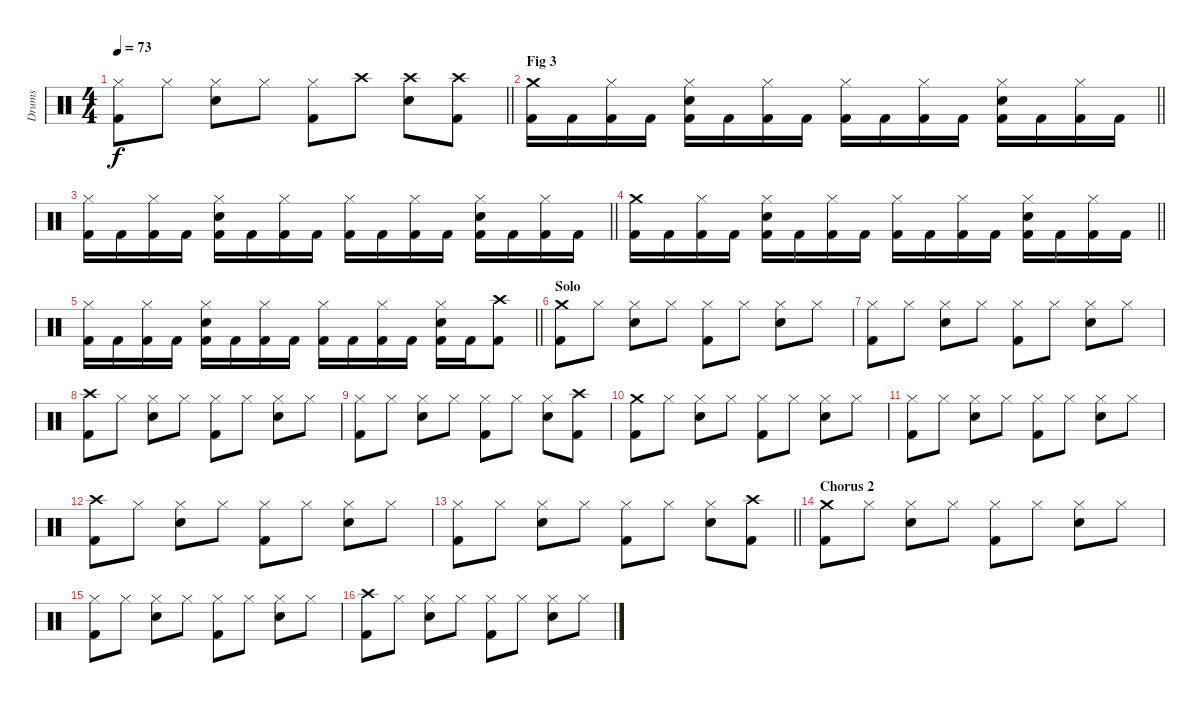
\track ("Drums" "Drums") {instrument percussion}
\staff {score}
\articulation defaults
\ts (4 4)
\tempo 73
\clef neutral
\barLineRight lightlight
\ks c
("Hi-Hat (closed)" "Kick (hit) 2").8{dy f} "Hi-Hat (closed)".8 ("Hi-Hat (closed)" "Electric Snare (hit)").8 "Hi-Hat (closed)".8 ("Hi-Hat (closed)" "Kick (hit) 2").8 "Crash high (hit)".8 ("Crash high (hit)" "Electric Snare (hit)").8 ("Crash high (hit)" "Kick (hit) 2").8 |
\section ("" "Fig 3")
\barLineRight lightlight
("Crash medium (hit)" "Kick (hit) 2").16 "Kick (hit) 2".16 ("Hi-Hat (closed)" "Kick (hit) 2").16 "Kick (hit) 2".16 ("Hi-Hat (closed)" "Electric Snare (hit)" "Kick (hit) 2").16 "Kick (hit) 2".16 ("Hi-Hat (closed)" "Kick (hit) 2").16 "Kick (hit) 2".16 ("Hi-Hat (closed)" "Kick (hit) 2").16 "Kick (hit) 2".16 ("Hi-Hat (closed)" "Kick (hit) 2").16 "Kick (hit) 2".16 ("Hi-Hat (closed)" "Electric Snare (hit)" "Kick (hit) 2").16 "Kick (hit) 2".16 ("Hi-Hat (closed)" "Kick (hit) 2").16 "Kick (hit) 2".16 |
\barLineRight lightlight
("Hi-Hat (closed)" "Kick (hit) 2").16 "Kick (hit) 2".16 ("Hi-Hat (closed)" "Kick (hit) 2").16 "Kick (hit) 2".16 ("Hi-Hat (closed)" "Electric Snare (hit)" "Kick (hit) 2").16 "Kick (hit) 2".16 ("Hi-Hat (closed)" "Kick (hit) 2").16 "Kick (hit) 2".16 ("Hi-Hat (closed)" "Kick (hit) 2").16 "Kick (hit) 2".16 ("Hi-Hat (closed)" "Kick (hit) 2").16 "Kick (hit) 2".16 ("Hi-Hat (closed)" "Electric Snare (hit)" "Kick (hit) 2").16 "Kick (hit) 2".16 ("Hi-Hat (closed)" "Kick (hit) 2").16 "Kick (hit) 2".16 |
\barLineRight lightlight
("Crash medium (hit)" "Kick (hit) 2").16 "Kick (hit) 2".16 ("Hi-Hat (closed)" "Kick (hit) 2").16 "Kick (hit) 2".16 ("Hi-Hat (closed)" "Electric Snare (hit)" "Kick (hit) 2").16 "Kick (hit) 2".16 ("Hi-Hat (closed)" "Kick (hit) 2").16 "Kick (hit) 2".16 ("Hi-Hat (closed)" "Kick (hit) 2").16 "Kick (hit) 2".16 ("Hi-Hat (closed)" "Kick (hit) 2").16 "Kick (hit) 2".16 ("Hi-Hat (closed)" "Electric Snare (hit)" "Kick (hit) 2").16 "Kick (hit) 2".16 ("Hi-Hat (closed)" "Kick (hit) 2").16 "Kick (hit) 2".16 |
\barLineRight lightlight
("Hi-Hat (closed)" "Kick (hit) 2").16 "Kick (hit) 2".16 ("Hi-Hat (closed)" "Kick (hit) 2").16 "Kick (hit) 2".16 ("Hi-Hat (closed)" "Electric Snare (hit)" "Kick (hit) 2").16 "Kick (hit) 2".16 ("Hi-Hat (closed)" "Kick (hit) 2").16 "Kick (hit) 2".16 ("Hi-Hat (closed)" "Kick (hit) 2").16 "Kick (hit) 2".16 ("Hi-Hat (closed)" "Kick (hit) 2").16 "Kick (hit) 2".16 ("Hi-Hat (closed)" "Electric Snare (hit)" "Kick (hit) 2").16 "Kick (hit) 2".16 ("Crash high (hit)" "Kick (hit) 2").8 |
\section ("" "Solo")
("Crash medium (hit)" "Kick (hit) 2").8 "Hi-Hat (closed)".8 ("Hi-Hat (closed)" "Electric Snare (hit)").8 "Hi-Hat (closed)".8 ("Hi-Hat (closed)" "Kick (hit) 2").8 "Hi-Hat (closed)".8 ("Hi-Hat (closed)" "Electric Snare (hit)").8 "Hi-Hat (closed)".8 |
("Hi-Hat (closed)" "Kick (hit) 2").8 "Hi-Hat (closed)".8 ("Hi-Hat (closed)" "Electric Snare (hit)").8 "Hi-Hat (closed)".8 ("Hi-Hat (closed)" "Kick (hit) 2").8 "Hi-Hat (closed)".8 ("Hi-Hat (closed)" "Electric Snare (hit)").8 "Hi-Hat (closed)".8 |
("Crash high (hit)" "Kick (hit) 2").8 "Hi-Hat (closed)".8 ("Hi-Hat (closed)" "Electric Snare (hit)").8 "Hi-Hat (closed)".8 ("Hi-Hat (closed)" "Kick (hit) 2").8 "Hi-Hat (closed)".8 ("Hi-Hat (closed)" "Electric Snare (hit)").8 "Hi-Hat (closed)".8 |
("Hi-Hat (closed)" "Kick (hit) 2").8 "Hi-Hat (closed)".8 ("Hi-Hat (closed)" "Electric Snare (hit)").8 "Hi-Hat (closed)".8 ("Hi-Hat (closed)" "Kick (hit) 2").8 "Hi-Hat (closed)".8 ("Hi-Hat (closed)" "Electric Snare (hit)").8 ("Crash high (hit)" "Kick (hit) 2").8 |
("Crash medium (hit)" "Kick (hit) 2").8 "Hi-Hat (closed)".8 ("Hi-Hat (closed)" "Electric Snare (hit)").8 "Hi-Hat (closed)".8 ("Hi-Hat (closed)" "Kick (hit) 2").8 "Hi-Hat (closed)".8 ("Hi-Hat (closed)" "Electric Snare (hit)").8 "Hi-Hat (closed)".8 |
("Hi-Hat (closed)" "Kick (hit) 2").8 "Hi-Hat (closed)".8 ("Hi-Hat (closed)" "Electric Snare (hit)").8 "Hi-Hat (closed)".8 ("Hi-Hat (closed)" "Kick (hit) 2").8 "Hi-Hat (closed)".8 ("Hi-Hat (closed)" "Electric Snare (hit)").8 "Hi-Hat (closed)".8 |
("Crash high (hit)" "Kick (hit) 2").8 "Hi-Hat (closed)".8 ("Hi-Hat (closed)" "Electric Snare (hit)").8 "Hi-Hat (closed)".8 ("Hi-Hat (closed)" "Kick (hit) 2").8 "Hi-Hat (closed)".8 ("Hi-Hat (closed)" "Electric Snare (hit)").8 "Hi-Hat (closed)".8 |
\barLineRight lightlight
("Hi-Hat (closed)" "Kick (hit) 2").8 "Hi-Hat (closed)".8 ("Hi-Hat (closed)" "Electric Snare (hit)").8 "Hi-Hat (closed)".8 ("Hi-Hat (closed)" "Kick (hit) 2").8 "Hi-Hat (closed)".8 ("Hi-Hat (closed)" "Electric Snare (hit)").8 ("Crash high (hit)" "Kick (hit) 2").8 |
\section ("" "Chorus 2")
("Crash medium (hit)" "Kick (hit) 2").8 "Hi-Hat (closed)".8 ("Hi-Hat (closed)" "Electric Snare (hit)").8 "Hi-Hat (closed)".8 ("Hi-Hat (closed)" "Kick (hit) 2").8 "Hi-Hat (closed)".8 ("Hi-Hat (closed)" "Electric Snare (hit)").8 "Hi-Hat (closed)".8 |
("Hi-Hat (closed)" "Kick (hit) 2").8 "Hi-Hat (closed)".8 ("Hi-Hat (closed)" "Electric Snare (hit)").8 "Hi-Hat (closed)".8 ("Hi-Hat (closed)" "Kick (hit) 2").8 "Hi-Hat (closed)".8 ("Hi-Hat (closed)" "Electric Snare (hit)").8 "Hi-Hat (closed)".8 |
("Crash high (hit)" "Kick (hit) 2").8 "Hi-Hat (closed)".8 ("Hi-Hat (closed)" "Electric Snare (hit)").8 "Hi-Hat (closed)".8 ("Hi-Hat (closed)" "Kick (hit) 2").8 "Hi-Hat (closed)".8 ("Hi-Hat (closed)" "Electric Snare (hit)").8 "Hi-Hat (closed)".8
